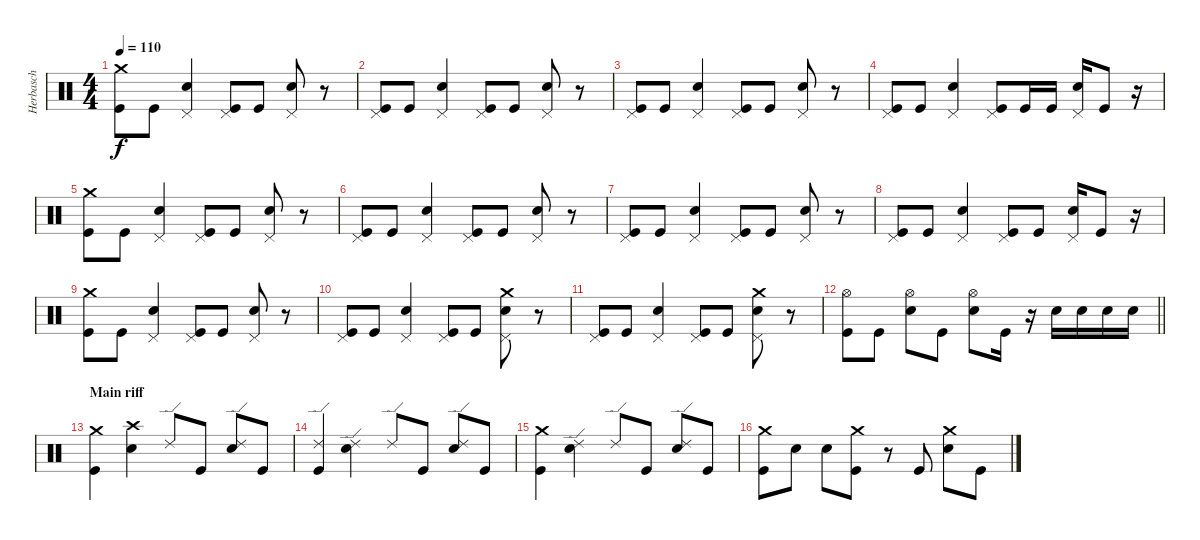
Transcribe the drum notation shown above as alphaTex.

\track ("Herbasch" "Herbasch") {instrument percussion}
\staff {score}
\articulation defaults
\ts (4 4)
\tempo 110
\clef neutral
\ks c
("Kick (hit)" "Crash medium (hit)").8{dy f} "Kick (hit)".8 ("Pedal Hi-Hat (hit)" "Electric Snare (hit)").4 ("Pedal Hi-Hat (hit)" "Kick (hit)").8 "Kick (hit)".8 ("Pedal Hi-Hat (hit)" "Electric Snare (hit)").8 r.8 |
("Pedal Hi-Hat (hit)" "Kick (hit)").8 "Kick (hit)".8 ("Pedal Hi-Hat (hit)" "Electric Snare (hit)").4 ("Pedal Hi-Hat (hit)" "Kick (hit)").8 "Kick (hit)".8 ("Pedal Hi-Hat (hit)" "Electric Snare (hit)").8 r.8 |
("Pedal Hi-Hat (hit)" "Kick (hit)").8 "Kick (hit)".8 ("Pedal Hi-Hat (hit)" "Electric Snare (hit)").4 ("Pedal Hi-Hat (hit)" "Kick (hit)").8 "Kick (hit)".8 ("Pedal Hi-Hat (hit)" "Electric Snare (hit)").8 r.8 |
("Pedal Hi-Hat (hit)" "Kick (hit)").8 "Kick (hit)".8 ("Pedal Hi-Hat (hit)" "Electric Snare (hit)").4 ("Pedal Hi-Hat (hit)" "Kick (hit)").8 "Kick (hit)".16 "Kick (hit)".16 ("Pedal Hi-Hat (hit)" "Electric Snare (hit)").16 "Kick (hit)".8 r.16 |
("Kick (hit)" "Crash medium (hit)").8 "Kick (hit)".8 ("Pedal Hi-Hat (hit)" "Electric Snare (hit)").4 ("Pedal Hi-Hat (hit)" "Kick (hit)").8 "Kick (hit)".8 ("Pedal Hi-Hat (hit)" "Electric Snare (hit)").8 r.8 |
("Pedal Hi-Hat (hit)" "Kick (hit)").8 "Kick (hit)".8 ("Pedal Hi-Hat (hit)" "Electric Snare (hit)").4 ("Pedal Hi-Hat (hit)" "Kick (hit)").8 "Kick (hit)".8 ("Pedal Hi-Hat (hit)" "Electric Snare (hit)").8 r.8 |
("Pedal Hi-Hat (hit)" "Kick (hit)").8 "Kick (hit)".8 ("Pedal Hi-Hat (hit)" "Electric Snare (hit)").4 ("Pedal Hi-Hat (hit)" "Kick (hit)").8 "Kick (hit)".8 ("Pedal Hi-Hat (hit)" "Electric Snare (hit)").8 r.8 |
("Pedal Hi-Hat (hit)" "Kick (hit)").8 "Kick (hit)".8 ("Pedal Hi-Hat (hit)" "Electric Snare (hit)").4 ("Pedal Hi-Hat (hit)" "Kick (hit)").8 "Kick (hit)".8 ("Pedal Hi-Hat (hit)" "Electric Snare (hit)").16 "Kick (hit)".8 r.16 |
("Kick (hit)" "Crash medium (hit)").8 "Kick (hit)".8 ("Pedal Hi-Hat (hit)" "Electric Snare (hit)").4 ("Pedal Hi-Hat (hit)" "Kick (hit)").8 "Kick (hit)".8 ("Pedal Hi-Hat (hit)" "Electric Snare (hit)").8 r.8 |
("Pedal Hi-Hat (hit)" "Kick (hit)").8 "Kick (hit)".8 ("Pedal Hi-Hat (hit)" "Electric Snare (hit)").4 ("Pedal Hi-Hat (hit)" "Kick (hit)").8 "Kick (hit)".8 ("Pedal Hi-Hat (hit)" "Electric Snare (hit)" "Crash medium (hit)").8 r.8 |
("Pedal Hi-Hat (hit)" "Kick (hit)").8 "Kick (hit)".8 ("Pedal Hi-Hat (hit)" "Electric Snare (hit)").4 ("Pedal Hi-Hat (hit)" "Kick (hit)").8 "Kick (hit)".8 ("Pedal Hi-Hat (hit)" "Electric Snare (hit)" "Crash medium (hit)").8 r.8 |
\barLineRight lightlight
("Hi-Hat (open)" "Kick (hit)").8 "Kick (hit)".8 ("Hi-Hat (open)" "Electric Snare (hit)").8 "Kick (hit)".8 ("Hi-Hat (open)" "Electric Snare (hit)").8 "Kick (hit)".16 r.16 "Electric Snare (hit)".16 "Electric Snare (hit)".16 "Electric Snare (hit)".16 "Electric Snare (hit)".16 |
\section ("" "Main riff")
("Kick (hit)" "Crash medium (hit)").4 ("Crash high (hit)" "Electric Snare (hit)").4 "Ride (edge) 2".8 "Kick (hit)".8 ("Electric Snare (hit)" "Ride (edge) 2").8 "Kick (hit)".8 |
("Kick (hit)" "Ride (edge) 2").4 ("Electric Snare (hit)" "Ride (edge) 2").4 "Ride (edge) 2".8 "Kick (hit)".8 ("Electric Snare (hit)" "Ride (edge) 2").8 "Kick (hit)".8 |
("Kick (hit)" "Crash medium (hit)").4 ("Electric Snare (hit)" "Ride (edge) 2").4 "Ride (edge) 2".8 "Kick (hit)".8 ("Electric Snare (hit)" "Ride (edge) 2").8 "Kick (hit)".8 |
("Kick (hit)" "Crash medium (hit)").8 "Electric Snare (hit)".8 "Electric Snare (hit)".8 ("Kick (hit)" "Crash medium (hit)").8 r.8 "Kick (hit)".8 ("Electric Snare (hit)" "Crash medium (hit)").8 "Kick (hit)".8
